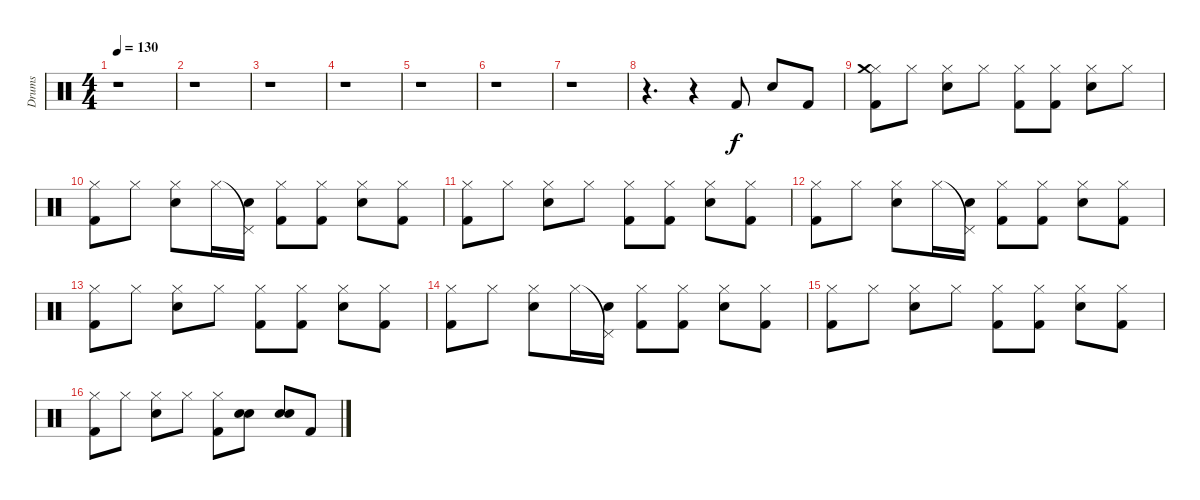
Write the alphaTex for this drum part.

\track ("Drums" "Drums") {instrument percussion}
\staff {score}
\articulation defaults
\ts (4 4)
\tempo 130
\clef neutral
\ks c
r.1{dy f} |
r.1 |
r.1 |
r.1 |
r.1 |
r.1 |
r.1 |
r.4{d} r.4 "Kick (hit) 2".8 "Electric Snare (hit)".8 "Kick (hit) 2".8 |
("Hi-Hat (closed)" "Kick (hit) 2" "Crash medium (hit)").8 "Hi-Hat (closed)".8 ("Hi-Hat (closed)" "Electric Snare (hit)").8 "Hi-Hat (closed)".8 ("Hi-Hat (closed)" "Kick (hit) 2").8 ("Hi-Hat (closed)" "Kick (hit) 2").8 ("Hi-Hat (closed)" "Electric Snare (hit)").8 "Hi-Hat (closed)".8 |
("Hi-Hat (closed)" "Kick (hit) 2").8 "Hi-Hat (closed)".8 ("Hi-Hat (closed)" "Electric Snare (hit)").8 "Hi-Hat (closed)".16 ("Pedal Hi-Hat (hit)"{t} "Electric Snare (hit)").16 ("Hi-Hat (closed)" "Kick (hit) 2").8 ("Hi-Hat (closed)" "Kick (hit) 2").8 ("Hi-Hat (closed)" "Electric Snare (hit)").8 ("Hi-Hat (closed)" "Kick (hit) 2").8 |
("Hi-Hat (closed)" "Kick (hit) 2").8 "Hi-Hat (closed)".8 ("Hi-Hat (closed)" "Electric Snare (hit)").8 "Hi-Hat (closed)".8 ("Hi-Hat (closed)" "Kick (hit) 2").8 ("Hi-Hat (closed)" "Kick (hit) 2").8 ("Hi-Hat (closed)" "Electric Snare (hit)").8 ("Hi-Hat (closed)" "Kick (hit) 2").8 |
("Hi-Hat (closed)" "Kick (hit) 2").8 "Hi-Hat (closed)".8 ("Hi-Hat (closed)" "Electric Snare (hit)").8 "Hi-Hat (closed)".16 ("Pedal Hi-Hat (hit)"{t} "Electric Snare (hit)").16 ("Hi-Hat (closed)" "Kick (hit) 2").8 ("Hi-Hat (closed)" "Kick (hit) 2").8 ("Hi-Hat (closed)" "Electric Snare (hit)").8 ("Hi-Hat (closed)" "Kick (hit) 2").8 |
("Hi-Hat (closed)" "Kick (hit) 2").8 "Hi-Hat (closed)".8 ("Hi-Hat (closed)" "Electric Snare (hit)").8 "Hi-Hat (closed)".8 ("Hi-Hat (closed)" "Kick (hit) 2").8 ("Hi-Hat (closed)" "Kick (hit) 2").8 ("Hi-Hat (closed)" "Electric Snare (hit)").8 ("Hi-Hat (closed)" "Kick (hit) 2").8 |
("Hi-Hat (closed)" "Kick (hit) 2").8 "Hi-Hat (closed)".8 ("Hi-Hat (closed)" "Electric Snare (hit)").8 "Hi-Hat (closed)".16 ("Pedal Hi-Hat (hit)"{t} "Electric Snare (hit)").16 ("Hi-Hat (closed)" "Kick (hit) 2").8 ("Hi-Hat (closed)" "Kick (hit) 2").8 ("Hi-Hat (closed)" "Electric Snare (hit)").8 ("Hi-Hat (closed)" "Kick (hit) 2").8 |
("Hi-Hat (closed)" "Kick (hit) 2").8 "Hi-Hat (closed)".8 ("Hi-Hat (closed)" "Electric Snare (hit)").8 "Hi-Hat (closed)".8 ("Hi-Hat (closed)" "Kick (hit) 2").8 ("Hi-Hat (closed)" "Kick (hit) 2").8 ("Hi-Hat (closed)" "Electric Snare (hit)").8 ("Hi-Hat (closed)" "Kick (hit) 2").8 |
("Hi-Hat (closed)" "Kick (hit) 2").8 "Hi-Hat (closed)".8 ("Hi-Hat (closed)" "Electric Snare (hit)").8 "Hi-Hat (closed)".8 ("Hi-Hat (closed)" "Kick (hit) 2").8 ("Electric Snare (hit)" "Electric Snare (hit)").8 ("Electric Snare (hit)" "Electric Snare (hit)").8 "Kick (hit) 2".8
